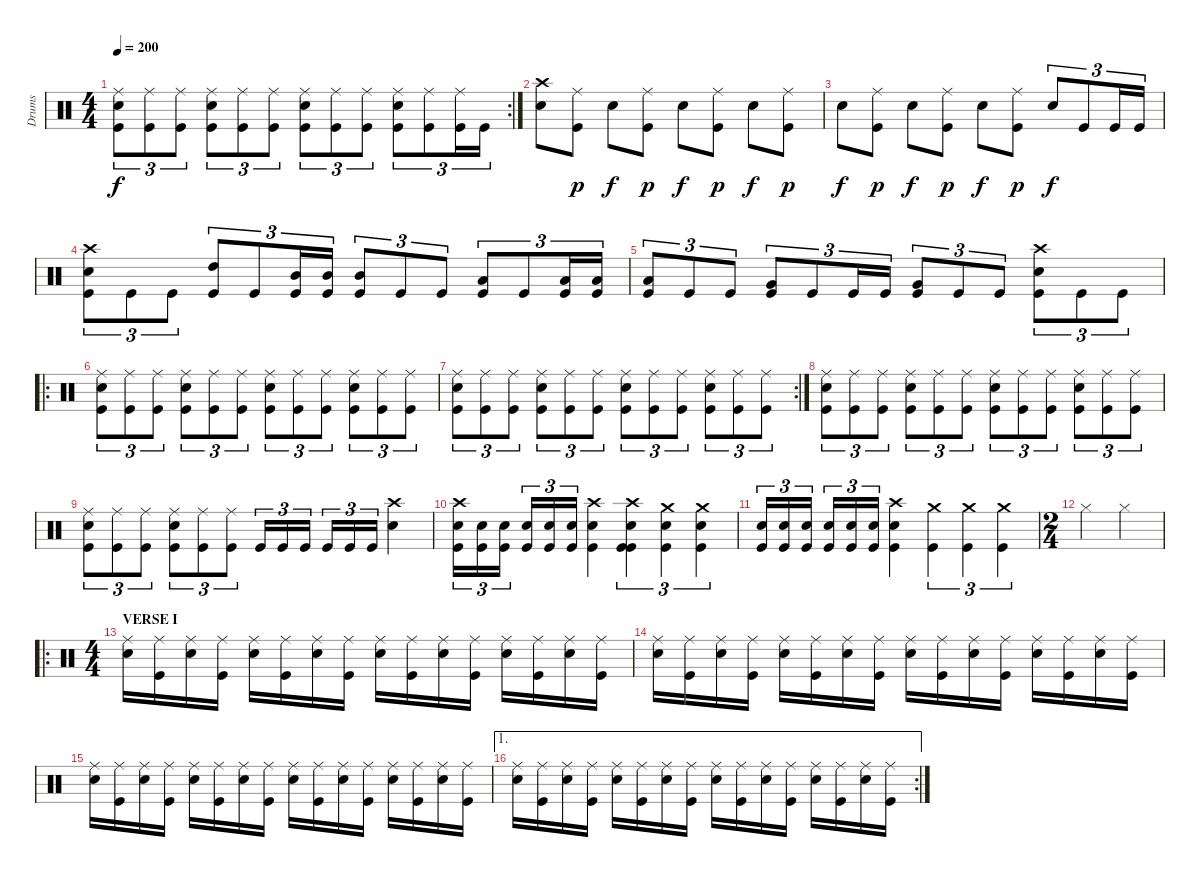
\track ("Drums" "Drums") {instrument percussion}
\staff {score}
\articulation defaults
\rc 2
\ts (4 4)
\tempo 200
\clef neutral
\ks c
("Snare (hit) 2" "Ride (middle)" "Kick (hit)").8{tu (3 2) dy f} ("Ride (middle)" "Kick (hit)").8{tu (3 2)} ("Ride (middle)" "Kick (hit)").8{tu (3 2)} ("Snare (hit) 2" "Ride (middle)" "Kick (hit)").8{tu (3 2)} ("Ride (middle)" "Kick (hit)").8{tu (3 2)} ("Ride (middle)" "Kick (hit)").8{tu (3 2)} ("Snare (hit) 2" "Ride (middle)" "Kick (hit)").8{tu (3 2)} ("Ride (middle)" "Kick (hit)").8{tu (3 2)} ("Ride (middle)" "Kick (hit)").8{tu (3 2)} ("Snare (hit) 2" "Ride (middle)" "Kick (hit)").8{tu (3 2)} ("Ride (middle)" "Kick (hit)").8{tu (3 2)} ("Ride (middle)" "Kick (hit)").16{tu (3 2)} "Kick (hit)".16{tu (3 2)} |
("Crash high (hit)" "Snare (hit) 2").8 ("Ride (middle)" "Kick (hit)").8{dy p} "Snare (hit) 2".8{dy f} ("Ride (middle)" "Kick (hit)").8{dy p} "Snare (hit) 2".8{dy f} ("Ride (middle)" "Kick (hit)").8{dy p} "Snare (hit) 2".8{dy f} ("Ride (middle)" "Kick (hit)").8{dy p} |
"Snare (hit) 2".8{dy f} ("Ride (middle)" "Kick (hit)").8{dy p} "Snare (hit) 2".8{dy f} ("Ride (middle)" "Kick (hit)").8{dy p} "Snare (hit) 2".8{dy f} ("Ride (middle)" "Kick (hit)").8{dy p} "Snare (hit) 2".8{tu (3 2) dy f} "Kick (hit)".8{tu (3 2)} "Kick (hit)".16{tu (3 2)} "Kick (hit)".16{tu (3 2)} |
("Snare (hit) 2" "Crash high (hit)" "Kick (hit)").8{tu (3 2)} "Kick (hit)".8{tu (3 2)} "Kick (hit)".8{tu (3 2)} ("High Tom (hit)" "Kick (hit)").8{tu (3 2)} "Kick (hit)".8{tu (3 2)} ("Mid Tom (hit)" "Kick (hit)").16{tu (3 2)} ("Mid Tom (hit)" "Kick (hit)").16{tu (3 2)} ("Mid Tom (hit)" "Kick (hit)").8{tu (3 2)} "Kick (hit)".8{tu (3 2)} "Kick (hit)".8{tu (3 2)} ("Low Tom (hit)" "Kick (hit)").8{tu (3 2)} "Kick (hit)".8{tu (3 2)} ("Low Tom (hit)" "Kick (hit)").16{tu (3 2)} ("Low Tom (hit)" "Kick (hit)").16{tu (3 2)} |
("Low Tom (hit)" "Kick (hit)").8{tu (3 2)} "Kick (hit)".8{tu (3 2)} "Kick (hit)".8{tu (3 2)} ("Very Low Tom (hit)" "Kick (hit)").8{tu (3 2)} "Kick (hit)".8{tu (3 2)} "Kick (hit)".16{tu (3 2)} "Kick (hit)".16{tu (3 2)} ("Very Low Tom (hit)" "Kick (hit)").8{tu (3 2)} "Kick (hit)".8{tu (3 2)} "Kick (hit)".8{tu (3 2)} ("Snare (hit) 2" "Crash high (hit)" "Kick (hit)").8{tu (3 2)} "Kick (hit)".8{tu (3 2)} "Kick (hit)".8{tu (3 2)} |
\ro
("Snare (hit) 2" "Ride (middle)" "Kick (hit)").8{tu (3 2)} ("Ride (middle)" "Kick (hit)").8{tu (3 2)} ("Ride (middle)" "Kick (hit)").8{tu (3 2)} ("Snare (hit) 2" "Ride (middle)" "Kick (hit)").8{tu (3 2)} ("Ride (middle)" "Kick (hit)").8{tu (3 2)} ("Ride (middle)" "Kick (hit)").8{tu (3 2)} ("Snare (hit) 2" "Ride (middle)" "Kick (hit)").8{tu (3 2)} ("Ride (middle)" "Kick (hit)").8{tu (3 2)} ("Ride (middle)" "Kick (hit)").8{tu (3 2)} ("Snare (hit) 2" "Ride (middle)" "Kick (hit)").8{tu (3 2)} ("Ride (middle)" "Kick (hit)").8{tu (3 2)} ("Ride (middle)" "Kick (hit)").8{tu (3 2)} |
\rc 2
("Snare (hit) 2" "Ride (middle)" "Kick (hit)").8{tu (3 2)} ("Ride (middle)" "Kick (hit)").8{tu (3 2)} ("Ride (middle)" "Kick (hit)").8{tu (3 2)} ("Snare (hit) 2" "Ride (middle)" "Kick (hit)").8{tu (3 2)} ("Ride (middle)" "Kick (hit)").8{tu (3 2)} ("Ride (middle)" "Kick (hit)").8{tu (3 2)} ("Snare (hit) 2" "Ride (middle)" "Kick (hit)").8{tu (3 2)} ("Ride (middle)" "Kick (hit)").8{tu (3 2)} ("Ride (middle)" "Kick (hit)").8{tu (3 2)} ("Snare (hit) 2" "Ride (middle)" "Kick (hit)").8{tu (3 2)} ("Ride (middle)" "Kick (hit)").8{tu (3 2)} ("Ride (middle)" "Kick (hit)").8{tu (3 2)} |
("Snare (hit) 2" "Ride (middle)" "Kick (hit)").8{tu (3 2)} ("Ride (middle)" "Kick (hit)").8{tu (3 2)} ("Ride (middle)" "Kick (hit)").8{tu (3 2)} ("Snare (hit) 2" "Ride (middle)" "Kick (hit)").8{tu (3 2)} ("Ride (middle)" "Kick (hit)").8{tu (3 2)} ("Ride (middle)" "Kick (hit)").8{tu (3 2)} ("Snare (hit) 2" "Ride (middle)" "Kick (hit)").8{tu (3 2)} ("Ride (middle)" "Kick (hit)").8{tu (3 2)} ("Ride (middle)" "Kick (hit)").8{tu (3 2)} ("Snare (hit) 2" "Ride (middle)" "Kick (hit)").8{tu (3 2)} ("Ride (middle)" "Kick (hit)").8{tu (3 2)} ("Ride (middle)" "Kick (hit)").8{tu (3 2)} |
("Snare (hit) 2" "Ride (middle)" "Kick (hit)").8{tu (3 2)} ("Ride (middle)" "Kick (hit)").8{tu (3 2)} ("Ride (middle)" "Kick (hit)").8{tu (3 2)} ("Snare (hit) 2" "Ride (middle)" "Kick (hit)").8{tu (3 2)} ("Ride (middle)" "Kick (hit)").8{tu (3 2)} ("Ride (middle)" "Kick (hit)").8{tu (3 2)} "Kick (hit)".16{tu (3 2)} "Kick (hit)".16{tu (3 2)} "Kick (hit)".16{tu (3 2)} "Kick (hit)".16{tu (3 2)} "Kick (hit)".16{tu (3 2)} "Kick (hit)".16{tu (3 2)} ("Crash high (hit)" "Snare (hit) 2").4 |
("Crash high (hit)" "Snare (hit) 2" "Kick (hit)").16{tu (3 2)} ("Snare (hit) 2" "Kick (hit)").16{tu (3 2)} ("Snare (hit) 2" "Kick (hit)").16{tu (3 2)} ("Snare (hit) 2" "Kick (hit)").16{tu (3 2)} ("Snare (hit) 2" "Kick (hit)").16{tu (3 2)} ("Snare (hit) 2" "Kick (hit)").16{tu (3 2)} ("Crash high (hit)" "Snare (hit) 2" "Kick (hit)").4 ("Crash high (hit)" "Kick (hit)" "Snare (hit) 2" "Kick (hit)").4{tu (3 2)} ("Crash medium (hit)" "Kick (hit)" "Snare (hit) 2").4{tu (3 2)} ("Crash medium (hit)" "Kick (hit)" "Snare (hit) 2").4{tu (3 2)} |
("Kick (hit)" "Snare (hit) 2").16{tu (3 2)} ("Kick (hit)" "Snare (hit) 2").16{tu (3 2)} ("Kick (hit)" "Snare (hit) 2").16{tu (3 2)} ("Kick (hit)" "Snare (hit) 2").16{tu (3 2)} ("Kick (hit)" "Snare (hit) 2").16{tu (3 2)} ("Kick (hit)" "Snare (hit) 2").16{tu (3 2)} ("Crash high (hit)" "Kick (hit)" "Snare (hit) 2").4 ("Crash medium (hit)" "Kick (hit)").4{tu (3 2)} ("Crash medium (hit)" "Kick (hit)").4{tu (3 2)} ("Crash medium (hit)" "Kick (hit)").4{tu (3 2)} |
\ts (2 4)
"Hi-Hat (closed)".4 "Hi-Hat (closed)".4 |
\ro
\ts (4 4)
\section ("" "VERSE I")
("Ride (middle)" "Snare (hit) 2").16 ("Ride (middle)" "Kick (hit)").16 ("Ride (middle)" "Snare (hit) 2").16 ("Ride (middle)" "Kick (hit)").16 ("Ride (middle)" "Snare (hit) 2").16 ("Ride (middle)" "Kick (hit)").16 ("Ride (middle)" "Snare (hit) 2").16 ("Ride (middle)" "Kick (hit)").16 ("Ride (middle)" "Snare (hit) 2").16 ("Ride (middle)" "Kick (hit)").16 ("Ride (middle)" "Snare (hit) 2").16 ("Ride (middle)" "Kick (hit)").16 ("Ride (middle)" "Snare (hit) 2").16 ("Ride (middle)" "Kick (hit)").16 ("Ride (middle)" "Snare (hit) 2").16 ("Ride (middle)" "Kick (hit)").16 |
("Ride (middle)" "Snare (hit) 2").16 ("Ride (middle)" "Kick (hit)").16 ("Ride (middle)" "Snare (hit) 2").16 ("Ride (middle)" "Kick (hit)").16 ("Ride (middle)" "Snare (hit) 2").16 ("Ride (middle)" "Kick (hit)").16 ("Ride (middle)" "Snare (hit) 2").16 ("Ride (middle)" "Kick (hit)").16 ("Ride (middle)" "Snare (hit) 2").16 ("Ride (middle)" "Kick (hit)").16 ("Ride (middle)" "Snare (hit) 2").16 ("Ride (middle)" "Kick (hit)").16 ("Ride (middle)" "Snare (hit) 2").16 ("Ride (middle)" "Kick (hit)").16 ("Ride (middle)" "Snare (hit) 2").16 ("Ride (middle)" "Kick (hit)").16 |
("Ride (middle)" "Snare (hit) 2").16 ("Ride (middle)" "Kick (hit)").16 ("Ride (middle)" "Snare (hit) 2").16 ("Ride (middle)" "Kick (hit)").16 ("Ride (middle)" "Snare (hit) 2").16 ("Ride (middle)" "Kick (hit)").16 ("Ride (middle)" "Snare (hit) 2").16 ("Ride (middle)" "Kick (hit)").16 ("Ride (middle)" "Snare (hit) 2").16 ("Ride (middle)" "Kick (hit)").16 ("Ride (middle)" "Snare (hit) 2").16 ("Ride (middle)" "Kick (hit)").16 ("Ride (middle)" "Snare (hit) 2").16 ("Ride (middle)" "Kick (hit)").16 ("Ride (middle)" "Snare (hit) 2").16 ("Ride (middle)" "Kick (hit)").16 |
\ae 1
\rc 2
("Ride (middle)" "Snare (hit) 2").16 ("Ride (middle)" "Kick (hit)").16 ("Ride (middle)" "Snare (hit) 2").16 ("Ride (middle)" "Kick (hit)").16 ("Ride (middle)" "Snare (hit) 2").16 ("Ride (middle)" "Kick (hit)").16 ("Ride (middle)" "Snare (hit) 2").16 ("Ride (middle)" "Kick (hit)").16 ("Ride (middle)" "Snare (hit) 2").16 ("Ride (middle)" "Kick (hit)").16 ("Ride (middle)" "Snare (hit) 2").16 ("Ride (middle)" "Kick (hit)").16 ("Ride (middle)" "Snare (hit) 2").16 ("Ride (middle)" "Kick (hit)").16 ("Ride (middle)" "Snare (hit) 2").16 ("Ride (middle)" "Kick (hit)").16
